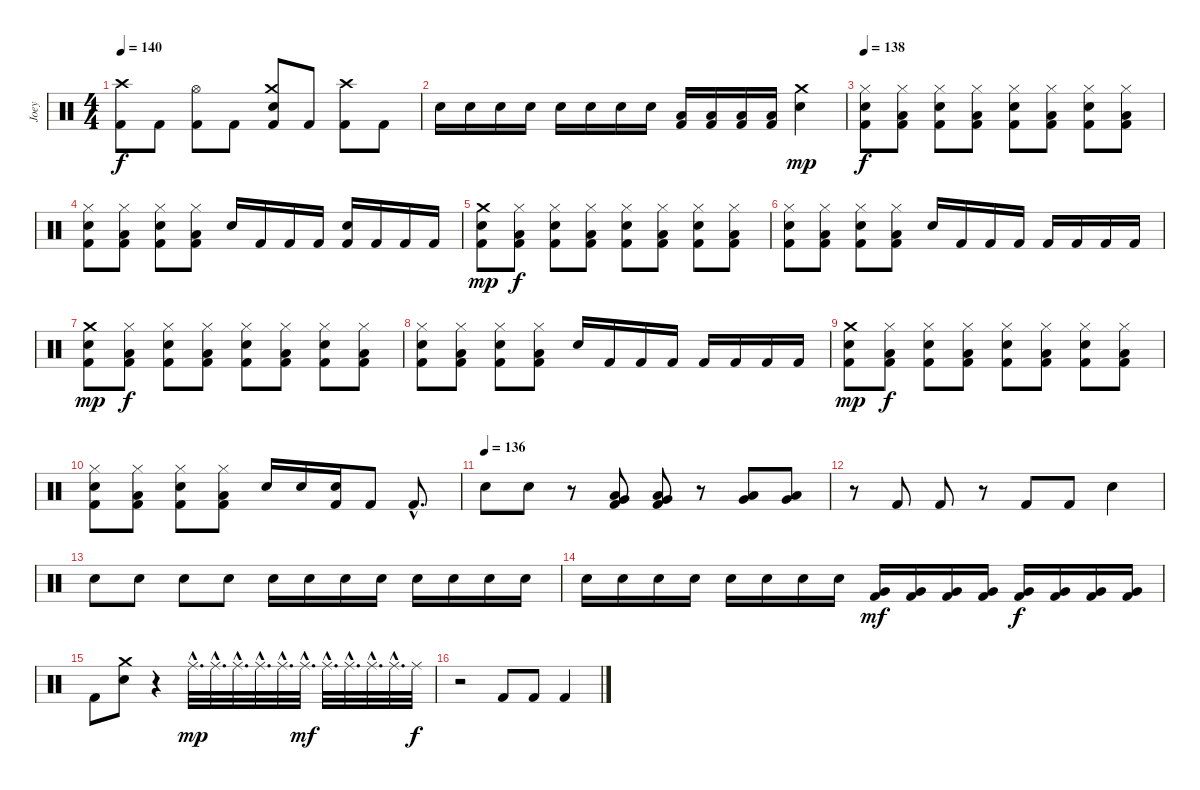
\track ("Joey" "Joey") {instrument percussion}
\staff {score}
\articulation defaults
\ts (4 4)
\tempo 140
\clef neutral
\ks c
("Crash high (hit)" "Kick (hit) 2").8{dy f} "Kick (hit) 2".8 ("Hi-Hat (open)" "Kick (hit) 2").8 "Kick (hit) 2".8 ("Crash medium (hit)" "Electric Snare (hit)" "Kick (hit) 2").8 "Kick (hit) 2".8 ("Crash high (hit)" "Kick (hit) 2").8 "Kick (hit) 2".8 |
"Electric Snare (hit)".16 "Electric Snare (hit)".16 "Electric Snare (hit)".16 "Electric Snare (hit)".16 "Electric Snare (hit)".16 "Electric Snare (hit)".16 "Electric Snare (hit)".16 "Electric Snare (hit)".16 ("Low Tom (hit)" "Kick (hit) 2").16 ("Low Tom (hit)" "Kick (hit) 2").16 ("Low Tom (hit)" "Kick (hit) 2").16 ("Low Tom (hit)" "Kick (hit) 2").16 ("Crash medium (hit)" "Electric Snare (hit)").4{dy mp} |
\tempo 138
("Hi-Hat (closed)" "Electric Snare (hit)" "Kick (hit) 2").8{dy f} ("Hi-Hat (closed)" "Low Tom (hit)" "Kick (hit) 2").8 ("Hi-Hat (closed)" "Electric Snare (hit)" "Kick (hit) 2").8 ("Hi-Hat (closed)" "Low Tom (hit)" "Kick (hit) 2").8 ("Hi-Hat (closed)" "Electric Snare (hit)" "Kick (hit) 2").8 ("Hi-Hat (closed)" "Low Tom (hit)" "Kick (hit) 2").8 ("Hi-Hat (closed)" "Electric Snare (hit)" "Kick (hit) 2").8 ("Hi-Hat (closed)" "Low Tom (hit)" "Kick (hit) 2").8 |
("Hi-Hat (closed)" "Electric Snare (hit)" "Kick (hit) 2").8 ("Hi-Hat (closed)" "Low Tom (hit)" "Kick (hit) 2").8 ("Hi-Hat (closed)" "Electric Snare (hit)" "Kick (hit) 2").8 ("Hi-Hat (closed)" "Low Tom (hit)" "Kick (hit) 2").8 "Electric Snare (hit)".16 "Kick (hit) 2".16 "Kick (hit) 2".16 "Kick (hit) 2".16 ("Electric Snare (hit)" "Kick (hit) 2").16 "Kick (hit) 2".16 "Kick (hit) 2".16 "Kick (hit) 2".16 |
("Crash medium (hit)" "Electric Snare (hit)" "Kick (hit) 2").8{dy mp} ("Hi-Hat (closed)" "Low Tom (hit)" "Kick (hit) 2").8{dy f} ("Hi-Hat (closed)" "Electric Snare (hit)" "Kick (hit) 2").8 ("Hi-Hat (closed)" "Low Tom (hit)" "Kick (hit) 2").8 ("Hi-Hat (closed)" "Electric Snare (hit)" "Kick (hit) 2").8 ("Hi-Hat (closed)" "Low Tom (hit)" "Kick (hit) 2").8 ("Hi-Hat (closed)" "Electric Snare (hit)" "Kick (hit) 2").8 ("Hi-Hat (closed)" "Low Tom (hit)" "Kick (hit) 2").8 |
("Hi-Hat (closed)" "Electric Snare (hit)" "Kick (hit) 2").8 ("Hi-Hat (closed)" "Low Tom (hit)" "Kick (hit) 2").8 ("Hi-Hat (closed)" "Electric Snare (hit)" "Kick (hit) 2").8 ("Hi-Hat (closed)" "Low Tom (hit)" "Kick (hit) 2").8 "Electric Snare (hit)".16 "Kick (hit) 2".16 "Kick (hit) 2".16 "Kick (hit) 2".16 "Kick (hit) 2".16 "Kick (hit) 2".16 "Kick (hit) 2".16 "Kick (hit) 2".16 |
("Crash medium (hit)" "Electric Snare (hit)" "Kick (hit) 2").8{dy mp} ("Hi-Hat (closed)" "Low Tom (hit)" "Kick (hit) 2").8{dy f} ("Hi-Hat (closed)" "Electric Snare (hit)" "Kick (hit) 2").8 ("Hi-Hat (closed)" "Low Tom (hit)" "Kick (hit) 2").8 ("Hi-Hat (closed)" "Electric Snare (hit)" "Kick (hit) 2").8 ("Hi-Hat (closed)" "Low Tom (hit)" "Kick (hit) 2").8 ("Hi-Hat (closed)" "Electric Snare (hit)" "Kick (hit) 2").8 ("Hi-Hat (closed)" "Low Tom (hit)" "Kick (hit) 2").8 |
("Hi-Hat (closed)" "Electric Snare (hit)" "Kick (hit) 2").8 ("Hi-Hat (closed)" "Low Tom (hit)" "Kick (hit) 2").8 ("Hi-Hat (closed)" "Electric Snare (hit)" "Kick (hit) 2").8 ("Hi-Hat (closed)" "Low Tom (hit)" "Kick (hit) 2").8 "Electric Snare (hit)".16 "Kick (hit) 2".16 "Kick (hit) 2".16 "Kick (hit) 2".16 "Kick (hit) 2".16 "Kick (hit) 2".16 "Kick (hit) 2".16 "Kick (hit) 2".16 |
("Crash medium (hit)" "Electric Snare (hit)" "Kick (hit) 2").8{dy mp} ("Hi-Hat (closed)" "Low Tom (hit)" "Kick (hit) 2").8{dy f} ("Hi-Hat (closed)" "Electric Snare (hit)" "Kick (hit) 2").8 ("Hi-Hat (closed)" "Low Tom (hit)" "Kick (hit) 2").8 ("Hi-Hat (closed)" "Electric Snare (hit)" "Kick (hit) 2").8 ("Hi-Hat (closed)" "Low Tom (hit)" "Kick (hit) 2").8 ("Hi-Hat (closed)" "Electric Snare (hit)" "Kick (hit) 2").8 ("Hi-Hat (closed)" "Low Tom (hit)" "Kick (hit) 2").8 |
("Hi-Hat (closed)" "Electric Snare (hit)" "Kick (hit) 2").8 ("Hi-Hat (closed)" "Low Tom (hit)" "Kick (hit) 2").8 ("Hi-Hat (closed)" "Electric Snare (hit)" "Kick (hit) 2").8 ("Hi-Hat (closed)" "Low Tom (hit)" "Kick (hit) 2").8 "Electric Snare (hit)".16 "Electric Snare (hit)".16 ("Electric Snare (hit)" "Kick (hit) 2").16 "Kick (hit) 2".8 "Kick (hit) 2"{hac}.8{d} |
\tempo (136)
"Electric Snare (hit)".8 "Electric Snare (hit)".8 r.8 ("Low Tom (hit)" "Very Low Tom (hit)" "Kick (hit) 2").8 ("Low Tom (hit)" "Very Low Tom (hit)" "Kick (hit) 2").8 r.8 ("Low Tom (hit)" "Very Low Tom (hit)").8 ("Low Tom (hit)" "Very Low Tom (hit)").8 |
r.8 "Kick (hit) 2".8 "Kick (hit) 2".8 r.8 "Kick (hit) 2".8 "Kick (hit) 2".8 "Electric Snare (hit)".4 |
"Electric Snare (hit)".8 "Electric Snare (hit)".8 "Electric Snare (hit)".8 "Electric Snare (hit)".8 "Electric Snare (hit)".16 "Electric Snare (hit)".16 "Electric Snare (hit)".16 "Electric Snare (hit)".16 "Electric Snare (hit)".16 "Electric Snare (hit)".16 "Electric Snare (hit)".16 "Electric Snare (hit)".16 |
"Electric Snare (hit)".16 "Electric Snare (hit)".16 "Electric Snare (hit)".16 "Electric Snare (hit)".16 "Electric Snare (hit)".16 "Electric Snare (hit)".16 "Electric Snare (hit)".16 "Electric Snare (hit)".16 ("Very Low Tom (hit)" "Kick (hit) 2").16{dy mf} ("Very Low Tom (hit)" "Kick (hit) 2").16 ("Very Low Tom (hit)" "Kick (hit) 2").16 ("Very Low Tom (hit)" "Kick (hit) 2").16 ("Very Low Tom (hit)" "Kick (hit) 2").16{dy f} ("Very Low Tom (hit)" "Kick (hit) 2").16 ("Very Low Tom (hit)" "Kick (hit) 2").16 ("Very Low Tom (hit)" "Kick (hit) 2").16 |
"Kick (hit) 2".8 ("Crash medium (hit)" "Electric Snare (hit)").8 r.4 "Ride (middle)"{hac}.32{d dy mp} "Ride (middle)"{hac}.32{d} "Ride (middle)"{hac}.32{d} "Ride (middle)"{hac}.32{d} "Ride (middle)"{hac}.32{d} "Ride (middle)"{hac}.32{d dy mf} "Ride (middle)"{hac}.32{d} "Ride (middle)"{hac}.32{d} "Ride (middle)"{hac}.32{d} "Ride (middle)"{hac}.32{d} "Ride (middle)".32{dy f} |
r.2 "Kick (hit) 2".8 "Kick (hit) 2".8 "Kick (hit) 2".4
